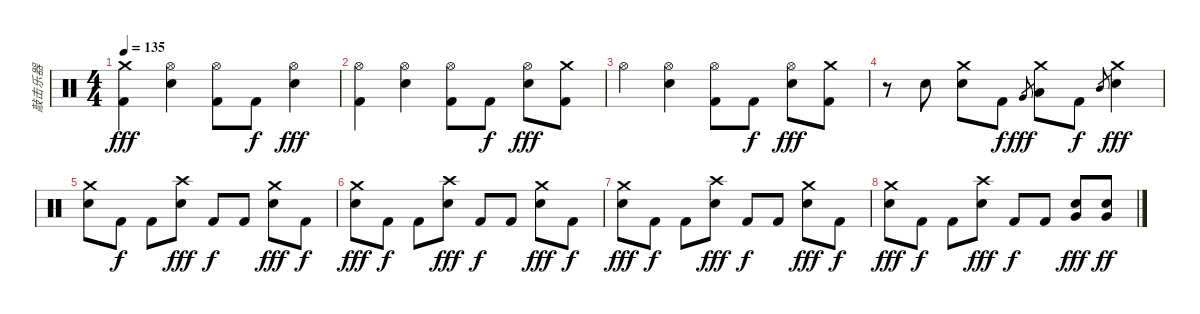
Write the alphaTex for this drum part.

\track ("敲击乐器" "敲击乐器") {instrument percussion}
\staff {score}
\articulation defaults
\ts (4 4)
\tempo 135
\clef neutral
\ks c
("Crash medium (hit)" "Kick (hit) 2").4{dy fff} ("Hi-Hat (open)" "Electric Snare (hit)").4 ("Hi-Hat (open)" "Kick (hit) 2").8 "Kick (hit) 2".8{dy f} ("Hi-Hat (open)" "Electric Snare (hit)").4{dy fff} |
("Hi-Hat (open)" "Kick (hit) 2").4 ("Hi-Hat (open)" "Electric Snare (hit)").4 ("Hi-Hat (open)" "Kick (hit) 2").8 "Kick (hit) 2".8{dy f} ("Hi-Hat (open)" "Electric Snare (hit)").8{dy fff} ("Crash medium (hit)" "Kick (hit) 2").8 |
"Hi-Hat (open)".4 ("Hi-Hat (open)" "Electric Snare (hit)").4 ("Hi-Hat (open)" "Kick (hit) 2").8 "Kick (hit) 2".8{dy f} ("Electric Snare (hit)" "Hi-Hat (open)").8{dy fff} ("Crash medium (hit)" "Kick (hit) 2").8 |
r.8 "Electric Snare (hit)".8 ("Electric Snare (hit)" "Crash medium (hit)").8 "Kick (hit) 2".8{dy f} "Very Low Tom (hit)".8{gr dy fff} ("Low Tom (hit)" "Crash medium (hit)").8 "Kick (hit) 2".8{dy f} "Mid Tom (hit)".8{gr} ("Electric Snare (hit)" "Crash medium (hit)").4{dy fff} |
("Crash medium (hit)" "Electric Snare (hit)").8 "Kick (hit) 2".8{dy f} "Kick (hit) 2".8 ("Electric Snare (hit)" "Crash high (hit)").8{dy fff} "Kick (hit) 2".8{dy f} "Kick (hit) 2".8 ("Electric Snare (hit)" "Crash medium (hit)").8{dy fff} "Kick (hit) 2".8{dy f} |
("Crash medium (hit)" "Electric Snare (hit)").8{dy fff} "Kick (hit) 2".8{dy f} "Kick (hit) 2".8 ("Electric Snare (hit)" "Crash high (hit)").8{dy fff} "Kick (hit) 2".8{dy f} "Kick (hit) 2".8 ("Electric Snare (hit)" "Crash medium (hit)").8{dy fff} "Kick (hit) 2".8{dy f} |
("Crash medium (hit)" "Electric Snare (hit)").8{dy fff} "Kick (hit) 2".8{dy f} "Kick (hit) 2".8 ("Electric Snare (hit)" "Crash high (hit)").8{dy fff} "Kick (hit) 2".8{dy f} "Kick (hit) 2".8 ("Electric Snare (hit)" "Crash medium (hit)").8{dy fff} "Kick (hit) 2".8{dy f} |
("Crash medium (hit)" "Electric Snare (hit)").8{dy fff} "Kick (hit) 2".8{dy f} "Kick (hit) 2".8 ("Electric Snare (hit)" "Crash high (hit)").8{dy fff} "Kick (hit) 2".8{dy f} "Kick (hit) 2".8 ("Electric Snare (hit)" "Very Low Tom (hit)").8{dy fff} ("Electric Snare (hit)" "Very Low Tom (hit)").8{dy ff}
